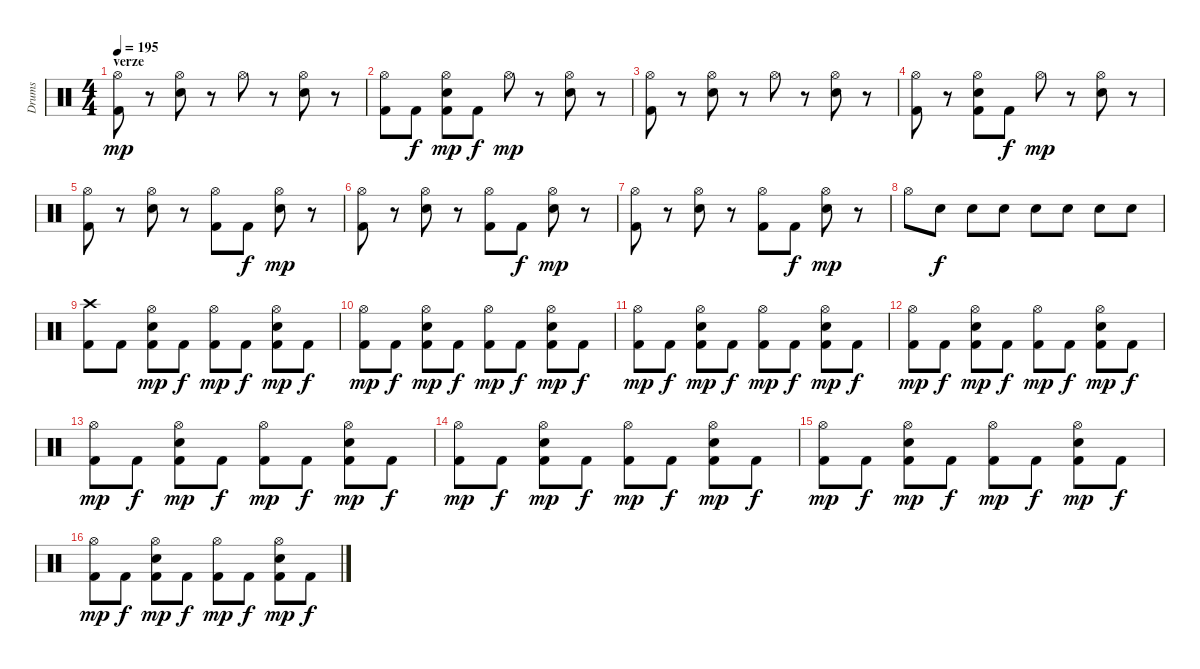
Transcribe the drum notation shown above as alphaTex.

\track ("Drums" "Drums") {instrument percussion}
\staff {score}
\articulation defaults
\ts (4 4)
\section ("" "verze")
\tempo 195
\clef neutral
\ks c
("Hi-Hat (open)" "Kick (hit) 2").8{dy mp} r.8 ("Hi-Hat (open)" "Snare (hit) 2").8 r.8 "Hi-Hat (open)".8 r.8 ("Hi-Hat (open)" "Snare (hit) 2").8 r.8 |
("Hi-Hat (open)" "Kick (hit) 2").8 "Kick (hit) 2".8{dy f} ("Hi-Hat (open)" "Snare (hit) 2" "Kick (hit) 2").8{dy mp} "Kick (hit) 2".8{dy f} "Hi-Hat (open)".8{dy mp} r.8 ("Hi-Hat (open)" "Snare (hit) 2").8 r.8 |
("Hi-Hat (open)" "Kick (hit) 2").8 r.8 ("Hi-Hat (open)" "Snare (hit) 2").8 r.8 "Hi-Hat (open)".8 r.8 ("Hi-Hat (open)" "Snare (hit) 2").8 r.8 |
("Hi-Hat (open)" "Kick (hit) 2").8 r.8 ("Hi-Hat (open)" "Snare (hit) 2" "Kick (hit) 2").8 "Kick (hit) 2".8{dy f} "Hi-Hat (open)".8{dy mp} r.8 ("Hi-Hat (open)" "Snare (hit) 2").8 r.8 |
("Hi-Hat (open)" "Kick (hit) 2").8 r.8 ("Hi-Hat (open)" "Snare (hit) 2").8 r.8 ("Hi-Hat (open)" "Kick (hit) 2").8 "Kick (hit) 2".8{dy f} ("Hi-Hat (open)" "Snare (hit) 2").8{dy mp} r.8 |
("Hi-Hat (open)" "Kick (hit) 2").8 r.8 ("Hi-Hat (open)" "Snare (hit) 2").8 r.8 ("Hi-Hat (open)" "Kick (hit) 2").8 "Kick (hit) 2".8{dy f} ("Hi-Hat (open)" "Snare (hit) 2").8{dy mp} r.8 |
("Hi-Hat (open)" "Kick (hit) 2").8 r.8 ("Hi-Hat (open)" "Snare (hit) 2").8 r.8 ("Hi-Hat (open)" "Kick (hit) 2").8 "Kick (hit) 2".8{dy f} ("Hi-Hat (open)" "Snare (hit) 2").8{dy mp} r.8 |
"Hi-Hat (open)".8 "Snare (hit) 2".8{dy f} "Snare (hit) 2".8 "Snare (hit) 2".8 "Snare (hit) 2".8 "Snare (hit) 2".8 "Snare (hit) 2".8 "Snare (hit) 2".8 |
("Crash high (hit)" "Kick (hit) 2").8 "Kick (hit) 2".8 ("Hi-Hat (open)" "Snare (hit) 2" "Kick (hit) 2").8{dy mp} "Kick (hit) 2".8{dy f} ("Hi-Hat (open)" "Kick (hit) 2").8{dy mp} "Kick (hit) 2".8{dy f} ("Hi-Hat (open)" "Snare (hit) 2" "Kick (hit) 2").8{dy mp} "Kick (hit) 2".8{dy f} |
("Hi-Hat (open)" "Kick (hit) 2").8{dy mp} "Kick (hit) 2".8{dy f} ("Hi-Hat (open)" "Snare (hit) 2" "Kick (hit) 2").8{dy mp} "Kick (hit) 2".8{dy f} ("Hi-Hat (open)" "Kick (hit) 2").8{dy mp} "Kick (hit) 2".8{dy f} ("Hi-Hat (open)" "Snare (hit) 2" "Kick (hit) 2").8{dy mp} "Kick (hit) 2".8{dy f} |
("Hi-Hat (open)" "Kick (hit) 2").8{dy mp} "Kick (hit) 2".8{dy f} ("Hi-Hat (open)" "Snare (hit) 2" "Kick (hit) 2").8{dy mp} "Kick (hit) 2".8{dy f} ("Hi-Hat (open)" "Kick (hit) 2").8{dy mp} "Kick (hit) 2".8{dy f} ("Hi-Hat (open)" "Snare (hit) 2" "Kick (hit) 2").8{dy mp} "Kick (hit) 2".8{dy f} |
("Hi-Hat (open)" "Kick (hit) 2").8{dy mp} "Kick (hit) 2".8{dy f} ("Hi-Hat (open)" "Snare (hit) 2" "Kick (hit) 2").8{dy mp} "Kick (hit) 2".8{dy f} ("Hi-Hat (open)" "Kick (hit) 2").8{dy mp} "Kick (hit) 2".8{dy f} ("Hi-Hat (open)" "Snare (hit) 2" "Kick (hit) 2").8{dy mp} "Kick (hit) 2".8{dy f} |
("Hi-Hat (open)" "Kick (hit) 2").8{dy mp} "Kick (hit) 2".8{dy f} ("Hi-Hat (open)" "Snare (hit) 2" "Kick (hit) 2").8{dy mp} "Kick (hit) 2".8{dy f} ("Hi-Hat (open)" "Kick (hit) 2").8{dy mp} "Kick (hit) 2".8{dy f} ("Hi-Hat (open)" "Snare (hit) 2" "Kick (hit) 2").8{dy mp} "Kick (hit) 2".8{dy f} |
("Hi-Hat (open)" "Kick (hit) 2").8{dy mp} "Kick (hit) 2".8{dy f} ("Hi-Hat (open)" "Snare (hit) 2" "Kick (hit) 2").8{dy mp} "Kick (hit) 2".8{dy f} ("Hi-Hat (open)" "Kick (hit) 2").8{dy mp} "Kick (hit) 2".8{dy f} ("Hi-Hat (open)" "Snare (hit) 2" "Kick (hit) 2").8{dy mp} "Kick (hit) 2".8{dy f} |
("Hi-Hat (open)" "Kick (hit) 2").8{dy mp} "Kick (hit) 2".8{dy f} ("Hi-Hat (open)" "Snare (hit) 2" "Kick (hit) 2").8{dy mp} "Kick (hit) 2".8{dy f} ("Hi-Hat (open)" "Kick (hit) 2").8{dy mp} "Kick (hit) 2".8{dy f} ("Hi-Hat (open)" "Snare (hit) 2" "Kick (hit) 2").8{dy mp} "Kick (hit) 2".8{dy f} |
("Hi-Hat (open)" "Kick (hit) 2").8{dy mp} "Kick (hit) 2".8{dy f} ("Hi-Hat (open)" "Snare (hit) 2" "Kick (hit) 2").8{dy mp} "Kick (hit) 2".8{dy f} ("Hi-Hat (open)" "Kick (hit) 2").8{dy mp} "Kick (hit) 2".8{dy f} ("Hi-Hat (open)" "Snare (hit) 2" "Kick (hit) 2").8{dy mp} "Kick (hit) 2".8{dy f}
